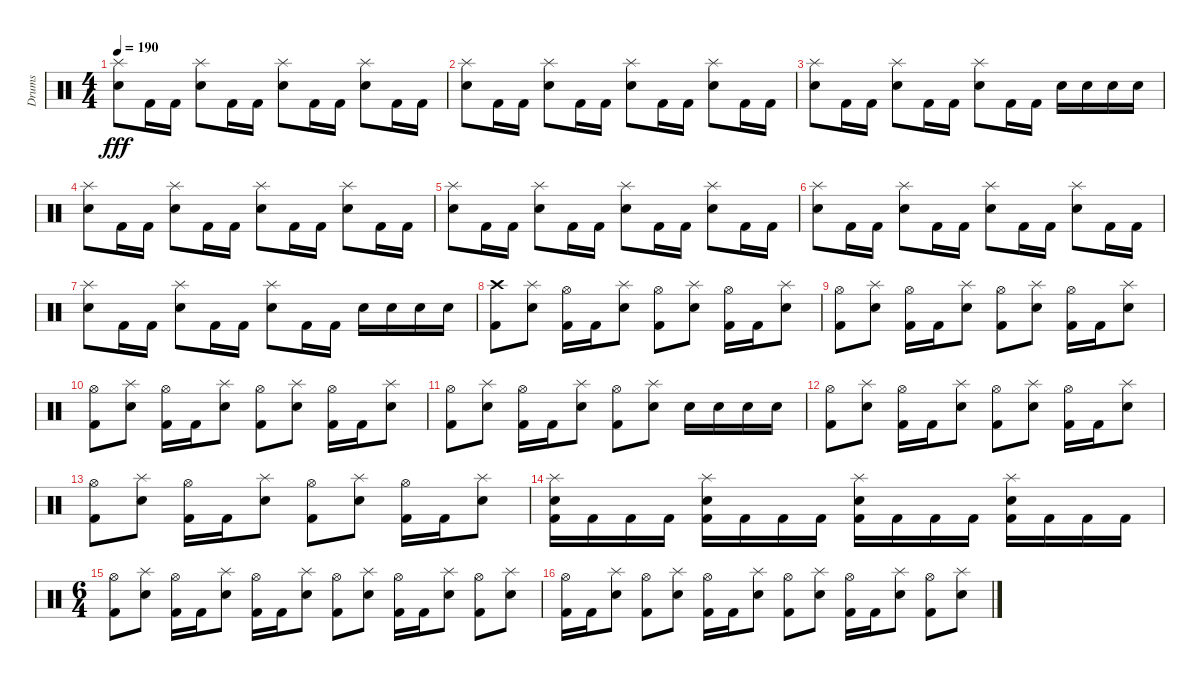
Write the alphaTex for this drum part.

\track ("Drums" "Drums") {instrument percussion}
\staff {score}
\articulation defaults
\ts (4 4)
\tempo 190
\clef neutral
\ks c
("Splash (hit)" "Snare (hit) 2").8{dy fff} "Kick (hit) 2".16 "Kick (hit) 2".16 ("Splash (hit)" "Snare (hit) 2").8 "Kick (hit) 2".16 "Kick (hit) 2".16 ("Splash (hit)" "Snare (hit) 2").8 "Kick (hit) 2".16 "Kick (hit) 2".16 ("Splash (hit)" "Snare (hit) 2").8 "Kick (hit) 2".16 "Kick (hit) 2".16 |
("Splash (hit)" "Snare (hit) 2").8 "Kick (hit) 2".16 "Kick (hit) 2".16 ("Splash (hit)" "Snare (hit) 2").8 "Kick (hit) 2".16 "Kick (hit) 2".16 ("Splash (hit)" "Snare (hit) 2").8 "Kick (hit) 2".16 "Kick (hit) 2".16 ("Splash (hit)" "Snare (hit) 2").8 "Kick (hit) 2".16 "Kick (hit) 2".16 |
("Splash (hit)" "Snare (hit) 2").8 "Kick (hit) 2".16 "Kick (hit) 2".16 ("Splash (hit)" "Snare (hit) 2").8 "Kick (hit) 2".16 "Kick (hit) 2".16 ("Splash (hit)" "Snare (hit) 2").8 "Kick (hit) 2".16 "Kick (hit) 2".16 "Snare (hit) 2".16 "Snare (hit) 2".16 "Snare (hit) 2".16 "Snare (hit) 2".16 |
("Splash (hit)" "Snare (hit) 2").8 "Kick (hit) 2".16 "Kick (hit) 2".16 ("Splash (hit)" "Snare (hit) 2").8 "Kick (hit) 2".16 "Kick (hit) 2".16 ("Splash (hit)" "Snare (hit) 2").8 "Kick (hit) 2".16 "Kick (hit) 2".16 ("Splash (hit)" "Snare (hit) 2").8 "Kick (hit) 2".16 "Kick (hit) 2".16 |
("Splash (hit)" "Snare (hit) 2").8 "Kick (hit) 2".16 "Kick (hit) 2".16 ("Splash (hit)" "Snare (hit) 2").8 "Kick (hit) 2".16 "Kick (hit) 2".16 ("Splash (hit)" "Snare (hit) 2").8 "Kick (hit) 2".16 "Kick (hit) 2".16 ("Splash (hit)" "Snare (hit) 2").8 "Kick (hit) 2".16 "Kick (hit) 2".16 |
("Splash (hit)" "Snare (hit) 2").8 "Kick (hit) 2".16 "Kick (hit) 2".16 ("Splash (hit)" "Snare (hit) 2").8 "Kick (hit) 2".16 "Kick (hit) 2".16 ("Splash (hit)" "Snare (hit) 2").8 "Kick (hit) 2".16 "Kick (hit) 2".16 ("Splash (hit)" "Snare (hit) 2").8 "Kick (hit) 2".16 "Kick (hit) 2".16 |
("Splash (hit)" "Snare (hit) 2").8 "Kick (hit) 2".16 "Kick (hit) 2".16 ("Splash (hit)" "Snare (hit) 2").8 "Kick (hit) 2".16 "Kick (hit) 2".16 ("Splash (hit)" "Snare (hit) 2").8 "Kick (hit) 2".16 "Kick (hit) 2".16 "Snare (hit) 2".16 "Snare (hit) 2".16 "Snare (hit) 2".16 "Snare (hit) 2".16 |
("Crash high (hit)" "Kick (hit) 2").8 ("Splash (hit)" "Snare (hit) 2").8 ("Hi-Hat (open)" "Kick (hit) 2").16 "Kick (hit) 2".16 ("Splash (hit)" "Snare (hit) 2").8 ("Hi-Hat (open)" "Kick (hit) 2").8 ("Splash (hit)" "Snare (hit) 2").8 ("Hi-Hat (open)" "Kick (hit) 2").16 "Kick (hit) 2".16 ("Splash (hit)" "Snare (hit) 2").8 |
("Hi-Hat (open)" "Kick (hit) 2").8 ("Splash (hit)" "Snare (hit) 2").8 ("Hi-Hat (open)" "Kick (hit) 2").16 "Kick (hit) 2".16 ("Splash (hit)" "Snare (hit) 2").8 ("Hi-Hat (open)" "Kick (hit) 2").8 ("Splash (hit)" "Snare (hit) 2").8 ("Hi-Hat (open)" "Kick (hit) 2").16 "Kick (hit) 2".16 ("Splash (hit)" "Snare (hit) 2").8 |
("Hi-Hat (open)" "Kick (hit) 2").8 ("Splash (hit)" "Snare (hit) 2").8 ("Hi-Hat (open)" "Kick (hit) 2").16 "Kick (hit) 2".16 ("Splash (hit)" "Snare (hit) 2").8 ("Hi-Hat (open)" "Kick (hit) 2").8 ("Splash (hit)" "Snare (hit) 2").8 ("Hi-Hat (open)" "Kick (hit) 2").16 "Kick (hit) 2".16 ("Splash (hit)" "Snare (hit) 2").8 |
("Hi-Hat (open)" "Kick (hit) 2").8 ("Splash (hit)" "Snare (hit) 2").8 ("Hi-Hat (open)" "Kick (hit) 2").16 "Kick (hit) 2".16 ("Splash (hit)" "Snare (hit) 2").8 ("Hi-Hat (open)" "Kick (hit) 2").8 ("Splash (hit)" "Snare (hit) 2").8 "Snare (hit) 2".16 "Snare (hit) 2".16 "Snare (hit) 2".16 "Snare (hit) 2".16 |
("Hi-Hat (open)" "Kick (hit) 2").8 ("Splash (hit)" "Snare (hit) 2").8 ("Hi-Hat (open)" "Kick (hit) 2").16 "Kick (hit) 2".16 ("Splash (hit)" "Snare (hit) 2").8 ("Hi-Hat (open)" "Kick (hit) 2").8 ("Splash (hit)" "Snare (hit) 2").8 ("Hi-Hat (open)" "Kick (hit) 2").16 "Kick (hit) 2".16 ("Splash (hit)" "Snare (hit) 2").8 |
("Hi-Hat (open)" "Kick (hit) 2").8 ("Splash (hit)" "Snare (hit) 2").8 ("Hi-Hat (open)" "Kick (hit) 2").16 "Kick (hit) 2".16 ("Splash (hit)" "Snare (hit) 2").8 ("Hi-Hat (open)" "Kick (hit) 2").8 ("Splash (hit)" "Snare (hit) 2").8 ("Hi-Hat (open)" "Kick (hit) 2").16 "Kick (hit) 2".16 ("Splash (hit)" "Snare (hit) 2").8 |
("Splash (hit)" "Snare (hit) 2" "Kick (hit) 2").16 "Kick (hit) 2".16 "Kick (hit) 2".16 "Kick (hit) 2".16 ("Splash (hit)" "Snare (hit) 2" "Kick (hit) 2").16 "Kick (hit) 2".16 "Kick (hit) 2".16 "Kick (hit) 2".16 ("Splash (hit)" "Snare (hit) 2" "Kick (hit) 2").16 "Kick (hit) 2".16 "Kick (hit) 2".16 "Kick (hit) 2".16 ("Splash (hit)" "Snare (hit) 2" "Kick (hit) 2").16 "Kick (hit) 2".16 "Kick (hit) 2".16 "Kick (hit) 2".16 |
\ts (6 4)
("Hi-Hat (open)" "Kick (hit) 2").8 ("Splash (hit)" "Snare (hit) 2").8 ("Hi-Hat (open)" "Kick (hit) 2").16 "Kick (hit) 2".16 ("Splash (hit)" "Snare (hit) 2").8 ("Hi-Hat (open)" "Kick (hit) 2").16 "Kick (hit) 2".16 ("Splash (hit)" "Snare (hit) 2").8 ("Hi-Hat (open)" "Kick (hit) 2").8 ("Splash (hit)" "Snare (hit) 2").8 ("Hi-Hat (open)" "Kick (hit) 2").16 "Kick (hit) 2".16 ("Splash (hit)" "Snare (hit) 2").8 ("Hi-Hat (open)" "Kick (hit) 2").8 ("Splash (hit)" "Snare (hit) 2").8 |
("Hi-Hat (open)" "Kick (hit) 2").16 "Kick (hit) 2".16 ("Splash (hit)" "Snare (hit) 2").8 ("Hi-Hat (open)" "Kick (hit) 2").8 ("Splash (hit)" "Snare (hit) 2").8 ("Hi-Hat (open)" "Kick (hit) 2").16 "Kick (hit) 2".16 ("Splash (hit)" "Snare (hit) 2").8 ("Hi-Hat (open)" "Kick (hit) 2").8 ("Splash (hit)" "Snare (hit) 2").8 ("Hi-Hat (open)" "Kick (hit) 2").16 "Kick (hit) 2".16 ("Splash (hit)" "Snare (hit) 2").8 ("Hi-Hat (open)" "Kick (hit) 2").8 ("Splash (hit)" "Snare (hit) 2").8
